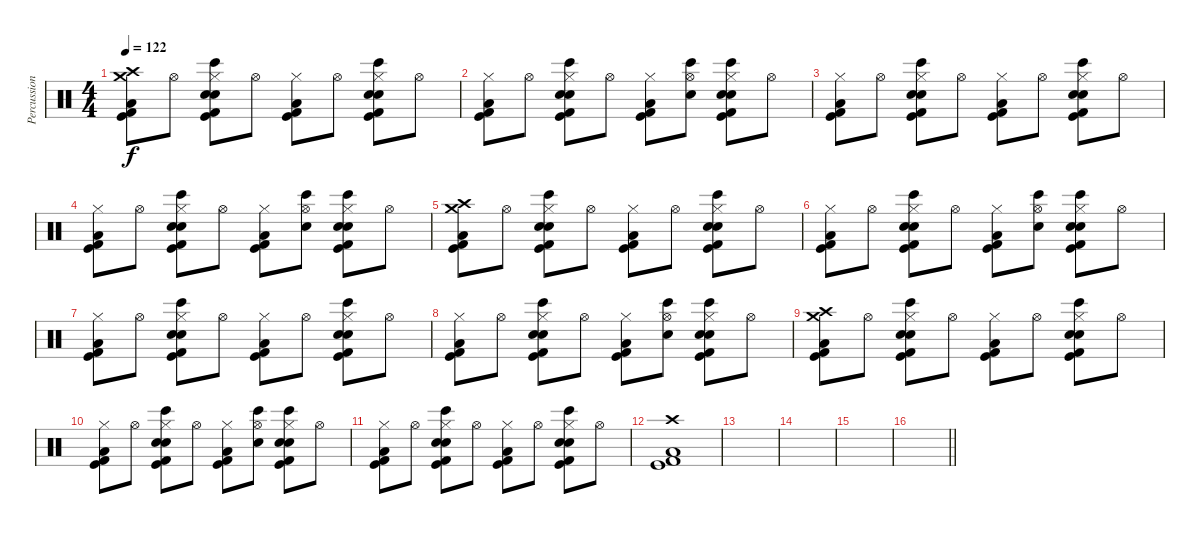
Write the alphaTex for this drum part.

\track ("Percussion" "Percussion") {instrument percussion}
\staff {score}
\articulation defaults
\ts (4 4)
\tempo 122
\clef neutral
\ks c
("Crash medium (hit)" "Crash high (hit)" "Low Floor Tom (hit)" "Kick (hit)" "Kick (hit) 2").8{dy f} "Hi-Hat (open)".8 ("Hand Clap (hit)" "Bongo High (hit)" "Hi-Hat (closed)" "Electric Snare (hit)" "Kick (hit)" "Kick (hit) 2").8 "Hi-Hat (open)".8 ("Hi-Hat (closed)" "Low Floor Tom (hit)" "Kick (hit)" "Kick (hit) 2").8 "Hi-Hat (open)".8 ("Hand Clap (hit)" "Bongo High (hit)" "Hi-Hat (closed)" "Electric Snare (hit)" "Kick (hit)" "Kick (hit) 2").8 "Hi-Hat (open)".8 |
("Hi-Hat (closed)" "Low Floor Tom (hit)" "Kick (hit)" "Kick (hit) 2").8 "Hi-Hat (open)".8 ("Hand Clap (hit)" "Bongo High (hit)" "Hi-Hat (closed)" "Electric Snare (hit)" "Kick (hit)" "Kick (hit) 2").8 "Hi-Hat (open)".8 ("Hi-Hat (closed)" "Low Floor Tom (hit)" "Kick (hit)" "Kick (hit) 2").8 ("Hand Clap (hit)" "Bongo High (hit)" "Hi-Hat (open)").8 ("Hand Clap (hit)" "Bongo High (hit)" "Hi-Hat (closed)" "Electric Snare (hit)" "Kick (hit)" "Kick (hit) 2").8 "Hi-Hat (open)".8 |
("Hi-Hat (closed)" "Low Floor Tom (hit)" "Kick (hit)" "Kick (hit) 2").8 "Hi-Hat (open)".8 ("Hand Clap (hit)" "Bongo High (hit)" "Hi-Hat (closed)" "Electric Snare (hit)" "Kick (hit)" "Kick (hit) 2").8 "Hi-Hat (open)".8 ("Hi-Hat (closed)" "Low Floor Tom (hit)" "Kick (hit)" "Kick (hit) 2").8 "Hi-Hat (open)".8 ("Hand Clap (hit)" "Bongo High (hit)" "Hi-Hat (closed)" "Electric Snare (hit)" "Kick (hit)" "Kick (hit) 2").8 "Hi-Hat (open)".8 |
("Hi-Hat (closed)" "Low Floor Tom (hit)" "Kick (hit)" "Kick (hit) 2").8 "Hi-Hat (open)".8 ("Hand Clap (hit)" "Bongo High (hit)" "Hi-Hat (closed)" "Electric Snare (hit)" "Kick (hit)" "Kick (hit) 2").8 "Hi-Hat (open)".8 ("Hi-Hat (closed)" "Low Floor Tom (hit)" "Kick (hit)" "Kick (hit) 2").8 ("Hand Clap (hit)" "Bongo High (hit)" "Hi-Hat (open)").8 ("Hand Clap (hit)" "Bongo High (hit)" "Hi-Hat (closed)" "Electric Snare (hit)" "Kick (hit)" "Kick (hit) 2").8 "Hi-Hat (open)".8 |
("Crash medium (hit)" "Crash high (hit)" "Low Floor Tom (hit)" "Kick (hit)" "Kick (hit) 2").8 "Hi-Hat (open)".8 ("Hand Clap (hit)" "Bongo High (hit)" "Hi-Hat (closed)" "Electric Snare (hit)" "Kick (hit)" "Kick (hit) 2").8 "Hi-Hat (open)".8 ("Hi-Hat (closed)" "Low Floor Tom (hit)" "Kick (hit)" "Kick (hit) 2").8 "Hi-Hat (open)".8 ("Hand Clap (hit)" "Bongo High (hit)" "Hi-Hat (closed)" "Electric Snare (hit)" "Kick (hit)" "Kick (hit) 2").8 "Hi-Hat (open)".8 |
("Hi-Hat (closed)" "Low Floor Tom (hit)" "Kick (hit)" "Kick (hit) 2").8 "Hi-Hat (open)".8 ("Hand Clap (hit)" "Bongo High (hit)" "Hi-Hat (closed)" "Electric Snare (hit)" "Kick (hit)" "Kick (hit) 2").8 "Hi-Hat (open)".8 ("Hi-Hat (closed)" "Low Floor Tom (hit)" "Kick (hit)" "Kick (hit) 2").8 ("Hand Clap (hit)" "Bongo High (hit)" "Hi-Hat (open)").8 ("Hand Clap (hit)" "Bongo High (hit)" "Hi-Hat (closed)" "Electric Snare (hit)" "Kick (hit)" "Kick (hit) 2").8 "Hi-Hat (open)".8 |
("Hi-Hat (closed)" "Low Floor Tom (hit)" "Kick (hit)" "Kick (hit) 2").8 "Hi-Hat (open)".8 ("Hand Clap (hit)" "Bongo High (hit)" "Hi-Hat (closed)" "Electric Snare (hit)" "Kick (hit)" "Kick (hit) 2").8 "Hi-Hat (open)".8 ("Hi-Hat (closed)" "Low Floor Tom (hit)" "Kick (hit)" "Kick (hit) 2").8 "Hi-Hat (open)".8 ("Hand Clap (hit)" "Bongo High (hit)" "Hi-Hat (closed)" "Electric Snare (hit)" "Kick (hit)" "Kick (hit) 2").8 "Hi-Hat (open)".8 |
("Hi-Hat (closed)" "Low Floor Tom (hit)" "Kick (hit)" "Kick (hit) 2").8 "Hi-Hat (open)".8 ("Hand Clap (hit)" "Bongo High (hit)" "Hi-Hat (closed)" "Electric Snare (hit)" "Kick (hit)" "Kick (hit) 2").8 "Hi-Hat (open)".8 ("Hi-Hat (closed)" "Low Floor Tom (hit)" "Kick (hit)" "Kick (hit) 2").8 ("Hand Clap (hit)" "Bongo High (hit)" "Hi-Hat (open)").8 ("Hand Clap (hit)" "Bongo High (hit)" "Hi-Hat (closed)" "Electric Snare (hit)" "Kick (hit)" "Kick (hit) 2").8 "Hi-Hat (open)".8 |
("Crash medium (hit)" "Crash high (hit)" "Low Floor Tom (hit)" "Kick (hit)" "Kick (hit) 2").8 "Hi-Hat (open)".8 ("Hand Clap (hit)" "Bongo High (hit)" "Hi-Hat (closed)" "Electric Snare (hit)" "Kick (hit)" "Kick (hit) 2").8 "Hi-Hat (open)".8 ("Hi-Hat (closed)" "Low Floor Tom (hit)" "Kick (hit)" "Kick (hit) 2").8 "Hi-Hat (open)".8 ("Hand Clap (hit)" "Bongo High (hit)" "Hi-Hat (closed)" "Electric Snare (hit)" "Kick (hit)" "Kick (hit) 2").8 "Hi-Hat (open)".8 |
("Hi-Hat (closed)" "Low Floor Tom (hit)" "Kick (hit)" "Kick (hit) 2").8 "Hi-Hat (open)".8 ("Hand Clap (hit)" "Bongo High (hit)" "Hi-Hat (closed)" "Electric Snare (hit)" "Kick (hit)" "Kick (hit) 2").8 "Hi-Hat (open)".8 ("Hi-Hat (closed)" "Low Floor Tom (hit)" "Kick (hit)" "Kick (hit) 2").8 ("Hand Clap (hit)" "Bongo High (hit)" "Hi-Hat (open)").8 ("Hand Clap (hit)" "Bongo High (hit)" "Hi-Hat (closed)" "Electric Snare (hit)" "Kick (hit)" "Kick (hit) 2").8 "Hi-Hat (open)".8 |
("Hi-Hat (closed)" "Low Floor Tom (hit)" "Kick (hit)" "Kick (hit) 2").8 "Hi-Hat (open)".8 ("Hand Clap (hit)" "Bongo High (hit)" "Hi-Hat (closed)" "Electric Snare (hit)" "Kick (hit)" "Kick (hit) 2").8 "Hi-Hat (open)".8 ("Hi-Hat (closed)" "Low Floor Tom (hit)" "Kick (hit)" "Kick (hit) 2").8 "Hi-Hat (open)".8 ("Hand Clap (hit)" "Bongo High (hit)" "Hi-Hat (closed)" "Electric Snare (hit)" "Kick (hit)" "Kick (hit) 2").8 "Hi-Hat (open)".8 |
("Crash high (hit)" "Kick (hit) 2" "Kick (hit)" "Low Floor Tom (hit)").1 |
|
|
|
\barLineRight lightlight
